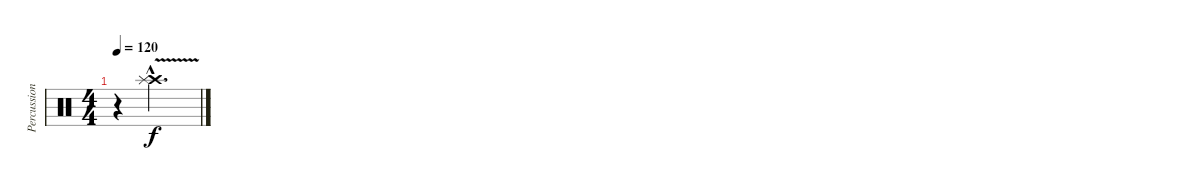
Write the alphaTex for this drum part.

\track ("Percussion" "Percussion") {instrument percussion}
\staff {score}
\articulation defaults
\ts (4 4)
\tempo 120
\clef neutral
\ks c
r.4{dy f} ("Crash high (hit)"{v hac} "Splash (hit)"{v hac}).2{d}
